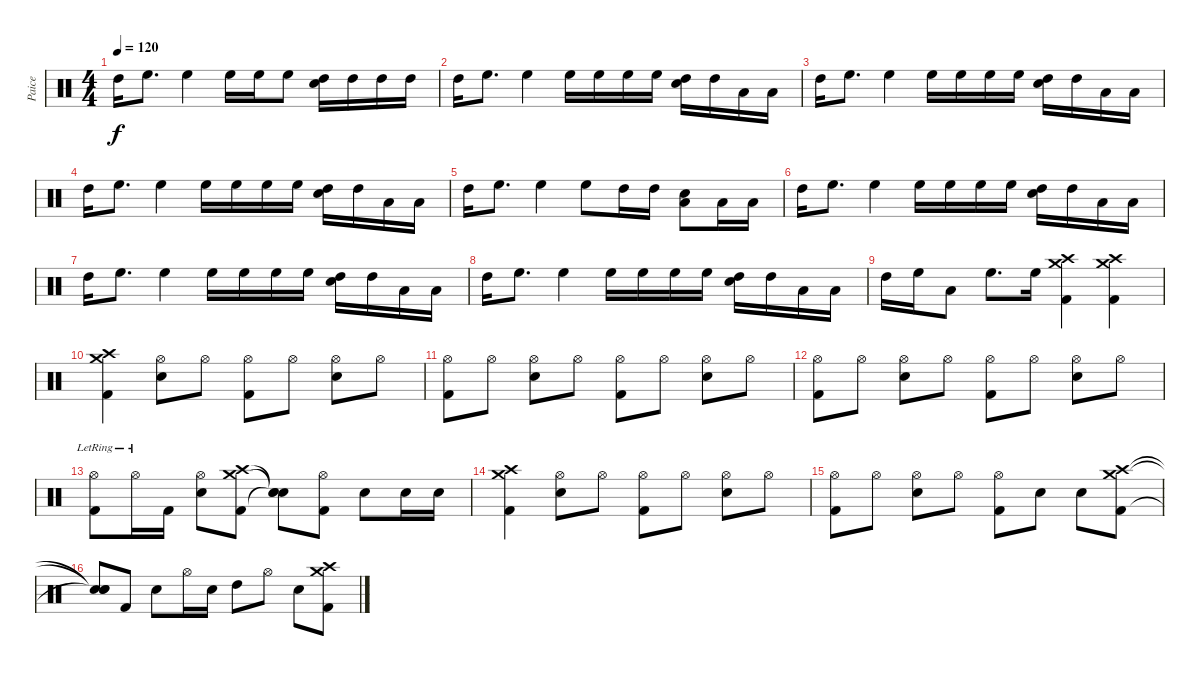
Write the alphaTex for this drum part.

\track ("Paice" "Paice") {instrument percussion}
\staff {score}
\articulation defaults
\ts (4 4)
\tempo 120
\clef neutral
\ks c "High Tom (hit)".16{dy f} "High Floor Tom (hit)".8{d} "High Floor Tom (hit)".4 "High Floor Tom (hit)".16 "High Floor Tom (hit)".16 "High Floor Tom (hit)".8
("High Tom (hit)" "Hand Clap (hit)").16 "High Tom (hit)".16 "High Tom (hit)".16 "High Tom (hit)".16 |
"High Tom (hit)".16 "High Floor Tom (hit)".8{d} "High Floor Tom (hit)".4 "High Floor Tom (hit)".16 "High Floor Tom (hit)".16 "High Floor Tom (hit)".16 "High Floor Tom (hit)".16 ("High Tom (hit)" "Hand Clap (hit)").16 "High Tom (hit)".16 "Low Tom (hit)".16 "Low Tom (hit)".16 |
"High Tom (hit)".16 "High Floor Tom (hit)".8{d} "High Floor Tom (hit)".4 "High Floor Tom (hit)".16 "High Floor Tom (hit)".16 "High Floor Tom (hit)".16 "High Floor Tom (hit)".16 ("High Tom (hit)" "Hand Clap (hit)").16 "High Tom (hit)".16 "Low Tom (hit)".16 "Low Tom (hit)".16 |
"High Tom (hit)".16 "High Floor Tom (hit)".8{d} "High Floor Tom (hit)".4 "High Floor Tom (hit)".16 "High Floor Tom (hit)".16 "High Floor Tom (hit)".16 "High Floor Tom (hit)".16 ("High Tom (hit)" "Hand Clap (hit)").16 "High Tom (hit)".16 "Low Tom (hit)".16 "Low Tom (hit)".16 |
"High Tom (hit)".16 "High Floor Tom (hit)".8{d} "High Floor Tom (hit)".4 "High Floor Tom (hit)".8 "High Tom (hit)".16 "High Tom (hit)".16 ("Low Tom (hit)" "Hand Clap (hit)").8 "Low Tom (hit)".16 "Low Tom (hit)".16 |
"High Tom (hit)".16 "High Floor Tom (hit)".8{d} "High Floor Tom (hit)".4 "High Floor Tom (hit)".16 "High Floor Tom (hit)".16 "High Floor Tom (hit)".16 "High Floor Tom (hit)".16 ("High Tom (hit)" "Hand Clap (hit)").16 "High Tom (hit)".16 "Low Tom (hit)".16 "Low Tom (hit)".16 |
"High Tom (hit)".16 "High Floor Tom (hit)".8{d} "High Floor Tom (hit)".4 "High Floor Tom (hit)".16 "High Floor Tom (hit)".16 "High Floor Tom (hit)".16 "High Floor Tom (hit)".16 ("High Tom (hit)" "Hand Clap (hit)").16 "High Tom (hit)".16 "Low Tom (hit)".16 "Low Tom (hit)".16 |
"High Tom (hit)".16 "High Floor Tom (hit)".8{d} "High Floor Tom (hit)".4 "High Floor Tom (hit)".16 "High Floor Tom (hit)".16 "High Floor Tom (hit)".16 "High Floor Tom (hit)".16 ("High Tom (hit)" "Hand Clap (hit)").16 "High Tom (hit)".16 "Low Tom (hit)".16 "Low Tom (hit)".16 |
"High Tom (hit)".16 "High Floor Tom (hit)".16 "Low Tom (hit)".8 "High Floor Tom (hit)".8{d} "High Floor Tom (hit)".16 ("Crash high (hit)" "Crash medium (hit)" "Kick (hit) 2").4 ("Crash high (hit)" "Crash medium (hit)" "Kick (hit) 2").4 |
("Crash high (hit)" "Crash medium (hit)" "Kick (hit) 2").4 ("Hi-Hat (open)" "Electric Snare (hit)").8 "Hi-Hat (open)".8 ("Hi-Hat (open)" "Kick (hit) 2").8 "Hi-Hat (open)".8 ("Hi-Hat (open)" "Electric Snare (hit)").8 "Hi-Hat (open)".8 |
("Hi-Hat (open)" "Kick (hit) 2").8 "Hi-Hat (open)".8 ("Hi-Hat (open)" "Electric Snare (hit)").8 "Hi-Hat (open)".8 ("Hi-Hat (open)" "Kick (hit) 2").8 "Hi-Hat (open)".8 ("Hi-Hat (open)" "Electric Snare (hit)").8 "Hi-Hat (open)".8 |
("Hi-Hat (open)" "Kick (hit) 2").8 "Hi-Hat (open)".8 ("Hi-Hat (open)" "Electric Snare (hit)").8 "Hi-Hat (open)".8 ("Hi-Hat (open)" "Kick (hit) 2").8 "Hi-Hat (open)".8 ("Hi-Hat (open)" "Electric Snare (hit)").8 "Hi-Hat (open)".8 |
("Hi-Hat (open)" "Kick (hit) 2"{lr}).8 "Hi-Hat (open)"{lr}.16 "Kick (hit) 2".16 ("Hi-Hat (open)" "Electric Snare (hit)").8 ("Crash high (hit)" "Crash medium (hit)" "Kick (hit) 2").8 ("Snare (hit)"{t} "Snare (hit)"{t} "Snare (hit)"{t}).8 ("Hi-Hat (open)" "Kick (hit) 2").8 "Electric Snare (hit)".8 "Electric Snare (hit)".16 "Electric Snare (hit)".16 |
("Crash high (hit)" "Crash medium (hit)" "Kick (hit) 2").4 ("Hi-Hat (open)" "Electric Snare (hit)").8 "Hi-Hat (open)".8 ("Hi-Hat (open)" "Kick (hit) 2").8 "Hi-Hat (open)".8 ("Hi-Hat (open)" "Electric Snare (hit)").8 "Hi-Hat (open)".8 |
("Hi-Hat (open)" "Kick (hit) 2").8 "Hi-Hat (open)".8 ("Hi-Hat (open)" "Electric Snare (hit)").8 "Hi-Hat (open)".8 ("Hi-Hat (open)" "Kick (hit) 2").8 "Electric Snare (hit)".8 "Electric Snare (hit)".8 ("Crash high (hit)" "Crash medium (hit)" "Kick (hit) 2").8 |
("Snare (hit)"{t} "Snare (hit)"{t} "Snare (hit)"{t}).8 "Kick (hit) 2".8 "Electric Snare (hit)".8 "Hi-Hat (open)".16 "Electric Snare (hit)".16 "High Tom (hit)".8 "Hi-Hat (open)".8 "Electric Snare (hit)".8 ("Crash high (hit)" "Crash medium (hit)" "Kick (hit) 2").8
